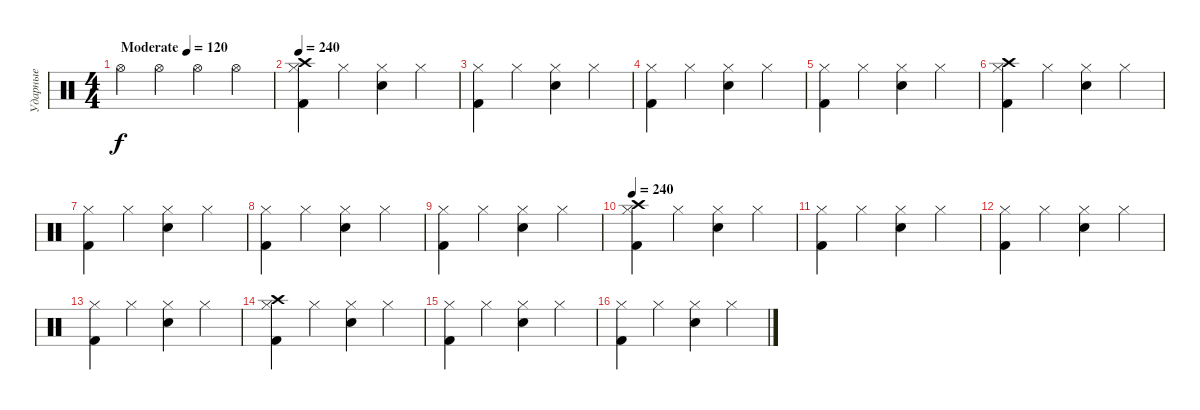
\track ("Ударные" "Ударные") {instrument percussion}
\staff {score}
\articulation defaults
\ts (4 4)
\tempo (120 "Moderate")
\clef neutral
\ks c "Hi-Hat (open)".4{dy f} "Hi-Hat (open)".4 "Hi-Hat (open)".4 "Hi-Hat (open)".4
|
\tempo 240
("Kick (hit) 2" "Hi-Hat (closed)" "Crash high (hit)").4 "Hi-Hat (closed)".4 ("Electric Snare (hit)" "Hi-Hat (closed)").4 "Hi-Hat (closed)".4 |
("Kick (hit) 2" "Hi-Hat (closed)").4 "Hi-Hat (closed)".4 ("Electric Snare (hit)" "Hi-Hat (closed)").4 "Hi-Hat (closed)".4 |
("Kick (hit) 2" "Hi-Hat (closed)").4 "Hi-Hat (closed)".4 ("Electric Snare (hit)" "Hi-Hat (closed)").4 "Hi-Hat (closed)".4 |
("Kick (hit) 2" "Hi-Hat (closed)").4 "Hi-Hat (closed)".4 ("Electric Snare (hit)" "Hi-Hat (closed)").4 "Hi-Hat (closed)".4 |
("Kick (hit) 2" "Hi-Hat (closed)" "Crash high (hit)").4 "Hi-Hat (closed)".4 ("Electric Snare (hit)" "Hi-Hat (closed)").4 "Hi-Hat (closed)".4 |
("Kick (hit) 2" "Hi-Hat (closed)").4 "Hi-Hat (closed)".4 ("Electric Snare (hit)" "Hi-Hat (closed)").4 "Hi-Hat (closed)".4 |
("Kick (hit) 2" "Hi-Hat (closed)").4 "Hi-Hat (closed)".4 ("Electric Snare (hit)" "Hi-Hat (closed)").4 "Hi-Hat (closed)".4 |
("Kick (hit) 2" "Hi-Hat (closed)").4 "Hi-Hat (closed)".4 ("Electric Snare (hit)" "Hi-Hat (closed)").4 "Hi-Hat (closed)".4 |
\tempo 240
("Kick (hit) 2" "Hi-Hat (closed)" "Crash high (hit)").4 "Hi-Hat (closed)".4 ("Electric Snare (hit)" "Hi-Hat (closed)").4 "Hi-Hat (closed)".4 |
("Kick (hit) 2" "Hi-Hat (closed)").4 "Hi-Hat (closed)".4 ("Electric Snare (hit)" "Hi-Hat (closed)").4 "Hi-Hat (closed)".4 |
("Kick (hit) 2" "Hi-Hat (closed)").4 "Hi-Hat (closed)".4 ("Electric Snare (hit)" "Hi-Hat (closed)").4 "Hi-Hat (closed)".4 |
("Kick (hit) 2" "Hi-Hat (closed)").4 "Hi-Hat (closed)".4 ("Electric Snare (hit)" "Hi-Hat (closed)").4 "Hi-Hat (closed)".4 |
("Kick (hit) 2" "Hi-Hat (closed)" "Crash high (hit)").4 "Hi-Hat (closed)".4 ("Electric Snare (hit)" "Hi-Hat (closed)").4 "Hi-Hat (closed)".4 |
("Kick (hit) 2" "Hi-Hat (closed)").4 "Hi-Hat (closed)".4 ("Electric Snare (hit)" "Hi-Hat (closed)").4 "Hi-Hat (closed)".4 |
("Kick (hit) 2" "Hi-Hat (closed)").4 "Hi-Hat (closed)".4 ("Electric Snare (hit)" "Hi-Hat (closed)").4 "Hi-Hat (closed)".4
